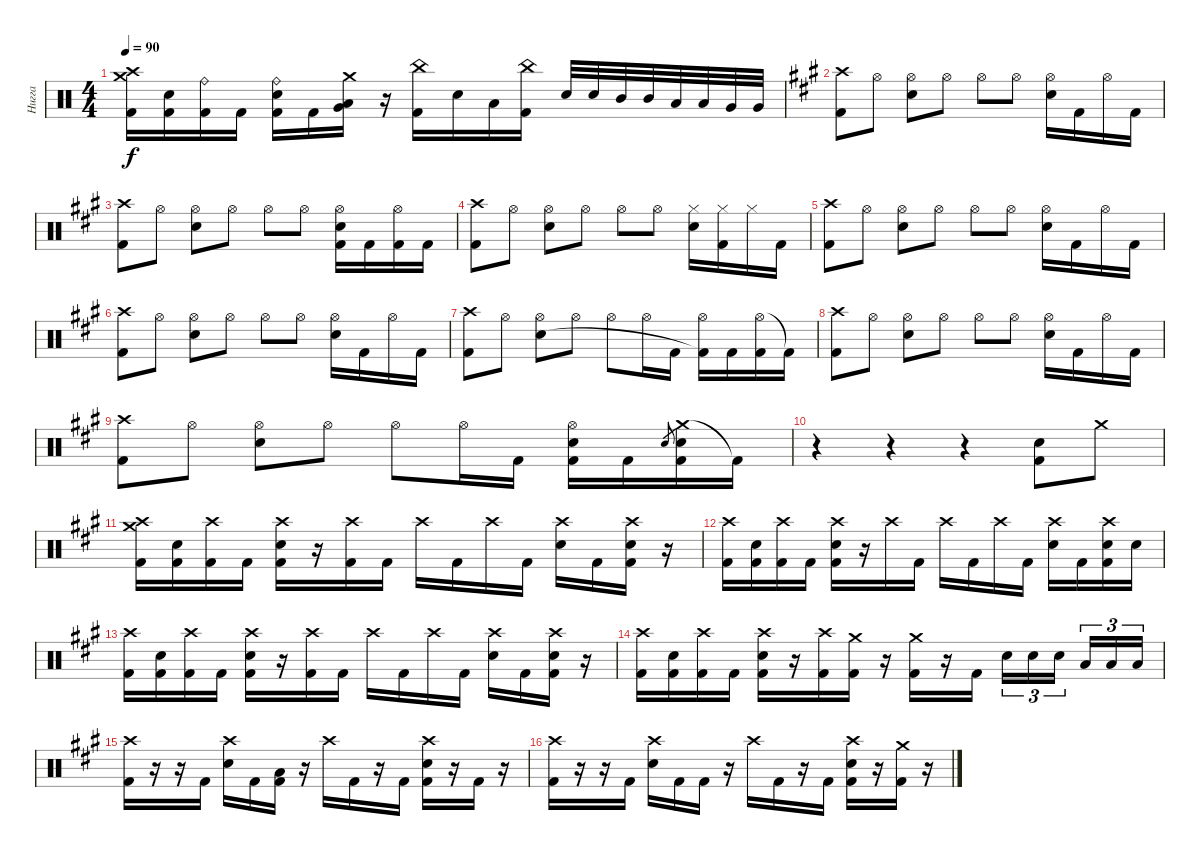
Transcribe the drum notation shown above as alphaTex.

\track ("Нигга" "Нигга") {instrument percussion}
\staff
\articulation defaults
\ts (4 4)
\tempo 90
\clef neutral
\ks c
("Crash high (hit)" "Crash medium (hit)" "Kick (hit) 2").16{dy f} ("Electric Snare (hit)" "Kick (hit) 2").16 ("Ride (bell)" "Kick (hit) 2").16 "Kick (hit) 2".16 ("Ride (bell)" "Electric Snare (hit)" "Kick (hit) 2").16 "Kick (hit) 2".16 ("Crash medium (hit)" "Very Low Tom (hit)" "Low Tom (hit)").16 r.16 ("China (hit)" "Kick (hit) 2").16 "Electric Snare (hit)".16 "Low Tom (hit)".16 ("China (hit)" "Kick (hit) 2").16 "Electric Snare (hit)".32 "Electric Snare (hit)".32 "Mid Tom (hit)".32 "Mid Tom (hit)".32 "Low Tom (hit)".32 "Low Tom (hit)".32 "Very Low Tom (hit)".32 "Very Low Tom (hit)".32 |
\ks f#minor
("Crash high (hit)" "Kick (hit) 2").8 "Hi-Hat (open)".8 ("Hi-Hat (open)" "Electric Snare (hit)").8 "Hi-Hat (open)".8 "Hi-Hat (open)".8 "Hi-Hat (open)".8 ("Hi-Hat (open)" "Electric Snare (hit)").16 "Kick (hit) 2".16 "Hi-Hat (open)".16 "Kick (hit) 2".16 |
("Crash high (hit)" "Kick (hit) 2").8 "Hi-Hat (open)".8 ("Hi-Hat (open)" "Electric Snare (hit)").8 "Hi-Hat (open)".8 "Hi-Hat (open)".8 "Hi-Hat (open)".8 ("Hi-Hat (open)" "Electric Snare (hit)" "Kick (hit) 2").16 "Kick (hit) 2".16 ("Hi-Hat (open)" "Kick (hit) 2").16 "Kick (hit) 2".16 |
("Crash high (hit)" "Kick (hit) 2").8 "Hi-Hat (open)".8 ("Hi-Hat (open)" "Electric Snare (hit)").8 "Hi-Hat (open)".8 "Hi-Hat (open)".8 "Hi-Hat (open)".8 ("Hi-Hat (closed)" "Electric Snare (hit)").16 ("Hi-Hat (closed)" "Kick (hit) 2").16 "Hi-Hat (closed)".16 "Kick (hit) 2".16 |
("Crash high (hit)" "Kick (hit) 2").8 "Hi-Hat (open)".8 ("Hi-Hat (open)" "Electric Snare (hit)").8 "Hi-Hat (open)".8 "Hi-Hat (open)".8 "Hi-Hat (open)".8 ("Hi-Hat (open)" "Electric Snare (hit)").16 "Kick (hit) 2".16 "Hi-Hat (open)".16 "Kick (hit) 2".16 |
("Crash high (hit)" "Kick (hit) 2").8 "Hi-Hat (open)".8 ("Hi-Hat (open)" "Electric Snare (hit)").8 "Hi-Hat (open)".8 "Hi-Hat (open)".8 "Hi-Hat (open)".8 ("Hi-Hat (open)" "Electric Snare (hit)").16 "Kick (hit) 2".16 "Hi-Hat (open)".16 "Kick (hit) 2".16 |
("Crash high (hit)" "Kick (hit) 2").8 "Hi-Hat (open)".8 ("Hi-Hat (open)" "Electric Snare (hit)").8 "Hi-Hat (open)".8 "Hi-Hat (open)".8 "Hi-Hat (open)".16 "Kick (hit) 2".16 ("Hi-Hat (open)" "Kick (hit) 2"{t}).16 "Kick (hit) 2".16 ("Hi-Hat (open)" "Kick (hit) 2").16 "Kick (hit) 2"{t}.16 |
("Crash high (hit)" "Kick (hit) 2").8 "Hi-Hat (open)".8 ("Hi-Hat (open)" "Electric Snare (hit)").8 "Hi-Hat (open)".8 "Hi-Hat (open)".8 "Hi-Hat (open)".8 ("Hi-Hat (open)" "Electric Snare (hit)").16 "Kick (hit) 2".16 "Hi-Hat (open)".16 "Kick (hit) 2".16 |
("Crash high (hit)" "Kick (hit) 2").8 "Hi-Hat (open)".8 ("Hi-Hat (open)" "Electric Snare (hit)").8 "Hi-Hat (open)".8 "Hi-Hat (open)".8 "Hi-Hat (open)".16 "Kick (hit) 2".16 ("Hi-Hat (open)" "Electric Snare (hit)" "Kick (hit) 2").16 "Kick (hit) 2".16 "Electric Snare (hit)".8{gr} ("Crash medium (hit)" "Electric Snare (hit)" "Kick (hit) 2").16 "Kick (hit) 2"{t}.16 |
r.4 r.4 r.4 ("Electric Snare (hit)" "Kick (hit) 2").8 "Crash medium (hit)".8 |
("Crash high (hit)" "Crash medium (hit)" "Kick (hit) 2").16 ("Electric Snare (hit)" "Kick (hit) 2").16 ("Crash high (hit)" "Kick (hit) 2").16 "Kick (hit) 2".16 ("Crash high (hit)" "Electric Snare (hit)" "Kick (hit) 2").16 r.16 ("Crash high (hit)" "Kick (hit) 2").16 "Kick (hit) 2".16 "Crash high (hit)".16 "Kick (hit) 2".16 "Crash high (hit)".16 "Kick (hit) 2".16 ("Crash high (hit)" "Electric Snare (hit)").16 "Kick (hit) 2".16 ("Crash high (hit)" "Electric Snare (hit)" "Kick (hit) 2").16 r.16 |
("Crash high (hit)" "Kick (hit) 2").16 ("Electric Snare (hit)" "Kick (hit) 2").16 ("Crash high (hit)" "Kick (hit) 2").16 "Kick (hit) 2".16 ("Crash high (hit)" "Electric Snare (hit)" "Kick (hit) 2").16 r.16 "Crash high (hit)".16 "Kick (hit) 2".16 "Crash high (hit)".16 "Kick (hit) 2".16 "Crash high (hit)".16 "Kick (hit) 2".16 ("Crash high (hit)" "Electric Snare (hit)").16 "Kick (hit) 2".16 ("Crash high (hit)" "Electric Snare (hit)" "Kick (hit) 2").16 "Electric Snare (hit)".16 |
("Crash high (hit)" "Kick (hit) 2").16 ("Electric Snare (hit)" "Kick (hit) 2").16 ("Crash high (hit)" "Kick (hit) 2").16 "Kick (hit) 2".16 ("Crash high (hit)" "Electric Snare (hit)" "Kick (hit) 2").16 r.16 ("Crash high (hit)" "Kick (hit) 2").16 "Kick (hit) 2".16 "Crash high (hit)".16 "Kick (hit) 2".16 "Crash high (hit)".16 "Kick (hit) 2".16 ("Crash high (hit)" "Electric Snare (hit)").16 "Kick (hit) 2".16 ("Crash high (hit)" "Electric Snare (hit)" "Kick (hit) 2").16 r.16 |
("Crash high (hit)" "Kick (hit) 2").16 ("Electric Snare (hit)" "Kick (hit) 2").16 ("Crash high (hit)" "Kick (hit) 2").16 "Kick (hit) 2".16 ("Crash high (hit)" "Electric Snare (hit)" "Kick (hit) 2").16 r.16 ("Crash high (hit)" "Kick (hit) 2").16 ("Crash medium (hit)" "Kick (hit) 2").16 r.16 ("Crash medium (hit)" "Kick (hit) 2").16 r.16 "Kick (hit) 2".16 "Electric Snare (hit)".16{tu (3 2)} "Electric Snare (hit)".16{tu (3 2)} "Electric Snare (hit)".16{tu (3 2) beam splitsecondary} "Low Tom (hit)".16{tu (3 2)} "Low Tom (hit)".16{tu (3 2)} "Low Tom (hit)".16{tu (3 2)} |
("Crash high (hit)" "Kick (hit) 2").16 r.16 r.16 "Kick (hit) 2".16 ("Crash high (hit)" "Electric Snare (hit)").16 "Kick (hit) 2".16 ("Low Tom (hit)" "Kick (hit) 2").16 r.16 "Crash high (hit)".16 "Kick (hit) 2".16 r.16 "Kick (hit) 2".16 ("Crash high (hit)" "Electric Snare (hit)" "Kick (hit) 2").16 r.16 "Kick (hit) 2".16 r.16 |
("Crash high (hit)" "Kick (hit) 2").16 r.16 r.16 "Kick (hit) 2".16 ("Crash high (hit)" "Electric Snare (hit)").16 "Kick (hit) 2".16 "Kick (hit) 2".16 r.16 "Crash high (hit)".16 "Kick (hit) 2".16 r.16 "Kick (hit) 2".16 ("Crash high (hit)" "Electric Snare (hit)" "Kick (hit) 2").16 r.16 ("Crash medium (hit)" "Kick (hit) 2").16 r.16
